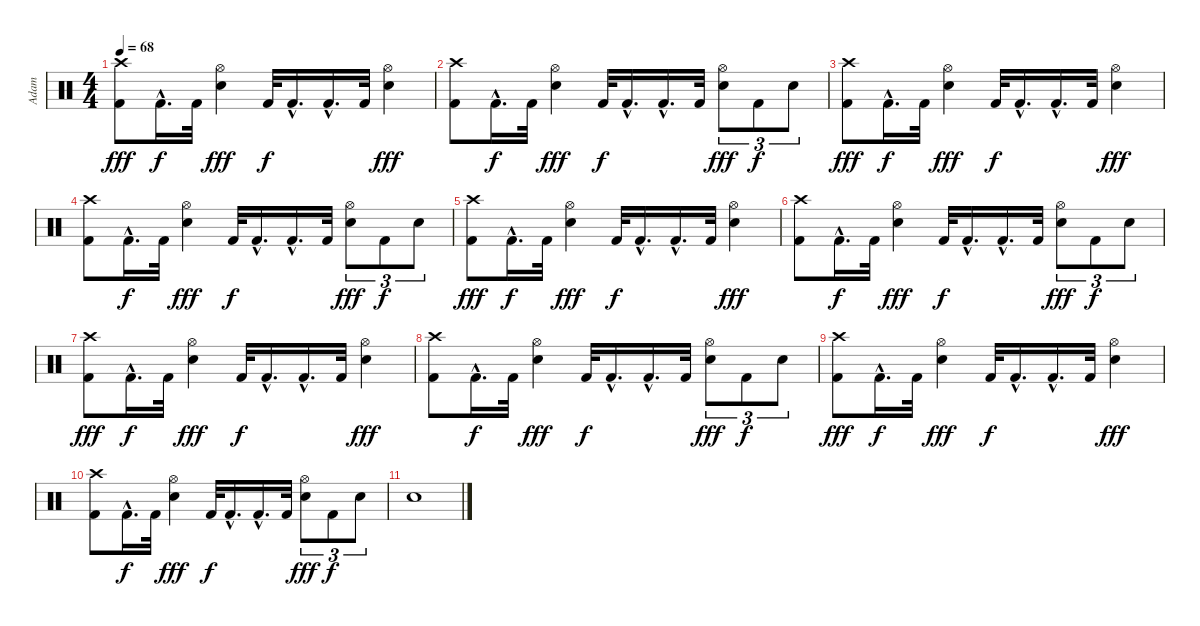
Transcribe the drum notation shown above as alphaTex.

\track ("Adam" "Adam") {instrument percussion}
\staff {score}
\articulation defaults
\ts (4 4)
\tempo 68
\clef neutral
\ks c
("Crash high (hit)" "Kick (hit) 2").8{dy fff} "Kick (hit) 2"{hac}.16{d dy f} "Kick (hit) 2".32 ("Hi-Hat (open)" "Electric Snare (hit)").4{dy fff} "Kick (hit) 2".32{dy f} "Kick (hit) 2"{hac}.16{d} "Kick (hit) 2"{hac}.16{d} "Kick (hit) 2".32 ("Hi-Hat (open)" "Electric Snare (hit)").4{dy fff} |
("Crash high (hit)" "Kick (hit) 2").8 "Kick (hit) 2"{hac}.16{d dy f} "Kick (hit) 2".32 ("Hi-Hat (open)" "Electric Snare (hit)").4{dy fff} "Kick (hit) 2".32{dy f} "Kick (hit) 2"{hac}.16{d} "Kick (hit) 2"{hac}.16{d} "Kick (hit) 2".32 ("Hi-Hat (open)" "Electric Snare (hit)").8{tu (3 2) dy fff} "Kick (hit) 2".8{tu (3 2) dy f} "Electric Snare (hit)".8{tu (3 2)} |
("Crash high (hit)" "Kick (hit) 2").8{dy fff} "Kick (hit) 2"{hac}.16{d dy f} "Kick (hit) 2".32 ("Hi-Hat (open)" "Electric Snare (hit)").4{dy fff} "Kick (hit) 2".32{dy f} "Kick (hit) 2"{hac}.16{d} "Kick (hit) 2"{hac}.16{d} "Kick (hit) 2".32 ("Hi-Hat (open)" "Electric Snare (hit)").4{dy fff} |
("Crash high (hit)" "Kick (hit) 2").8 "Kick (hit) 2"{hac}.16{d dy f} "Kick (hit) 2".32 ("Hi-Hat (open)" "Electric Snare (hit)").4{dy fff} "Kick (hit) 2".32{dy f} "Kick (hit) 2"{hac}.16{d} "Kick (hit) 2"{hac}.16{d} "Kick (hit) 2".32 ("Hi-Hat (open)" "Electric Snare (hit)").8{tu (3 2) dy fff} "Kick (hit) 2".8{tu (3 2) dy f} "Electric Snare (hit)".8{tu (3 2)} |
("Crash high (hit)" "Kick (hit) 2").8{dy fff} "Kick (hit) 2"{hac}.16{d dy f} "Kick (hit) 2".32 ("Hi-Hat (open)" "Electric Snare (hit)").4{dy fff} "Kick (hit) 2".32{dy f} "Kick (hit) 2"{hac}.16{d} "Kick (hit) 2"{hac}.16{d} "Kick (hit) 2".32 ("Hi-Hat (open)" "Electric Snare (hit)").4{dy fff} |
("Crash high (hit)" "Kick (hit) 2").8 "Kick (hit) 2"{hac}.16{d dy f} "Kick (hit) 2".32 ("Hi-Hat (open)" "Electric Snare (hit)").4{dy fff} "Kick (hit) 2".32{dy f} "Kick (hit) 2"{hac}.16{d} "Kick (hit) 2"{hac}.16{d} "Kick (hit) 2".32 ("Hi-Hat (open)" "Electric Snare (hit)").8{tu (3 2) dy fff} "Kick (hit) 2".8{tu (3 2) dy f} "Electric Snare (hit)".8{tu (3 2)} |
("Crash high (hit)" "Kick (hit) 2").8{dy fff} "Kick (hit) 2"{hac}.16{d dy f} "Kick (hit) 2".32 ("Hi-Hat (open)" "Electric Snare (hit)").4{dy fff} "Kick (hit) 2".32{dy f} "Kick (hit) 2"{hac}.16{d} "Kick (hit) 2"{hac}.16{d} "Kick (hit) 2".32 ("Hi-Hat (open)" "Electric Snare (hit)").4{dy fff} |
("Crash high (hit)" "Kick (hit) 2").8 "Kick (hit) 2"{hac}.16{d dy f} "Kick (hit) 2".32 ("Hi-Hat (open)" "Electric Snare (hit)").4{dy fff} "Kick (hit) 2".32{dy f} "Kick (hit) 2"{hac}.16{d} "Kick (hit) 2"{hac}.16{d} "Kick (hit) 2".32 ("Hi-Hat (open)" "Electric Snare (hit)").8{tu (3 2) dy fff} "Kick (hit) 2".8{tu (3 2) dy f} "Electric Snare (hit)".8{tu (3 2)} |
("Crash high (hit)" "Kick (hit) 2").8{dy fff} "Kick (hit) 2"{hac}.16{d dy f} "Kick (hit) 2".32 ("Hi-Hat (open)" "Electric Snare (hit)").4{dy fff} "Kick (hit) 2".32{dy f} "Kick (hit) 2"{hac}.16{d} "Kick (hit) 2"{hac}.16{d} "Kick (hit) 2".32 ("Hi-Hat (open)" "Electric Snare (hit)").4{dy fff} |
("Crash high (hit)" "Kick (hit) 2").8 "Kick (hit) 2"{hac}.16{d dy f} "Kick (hit) 2".32 ("Hi-Hat (open)" "Electric Snare (hit)").4{dy fff} "Kick (hit) 2".32{dy f} "Kick (hit) 2"{hac}.16{d} "Kick (hit) 2"{hac}.16{d} "Kick (hit) 2".32 ("Hi-Hat (open)" "Electric Snare (hit)").8{tu (3 2) dy fff} "Kick (hit) 2".8{tu (3 2) dy f} "Electric Snare (hit)".8{tu (3 2)} |
"Electric Snare (hit)".1
